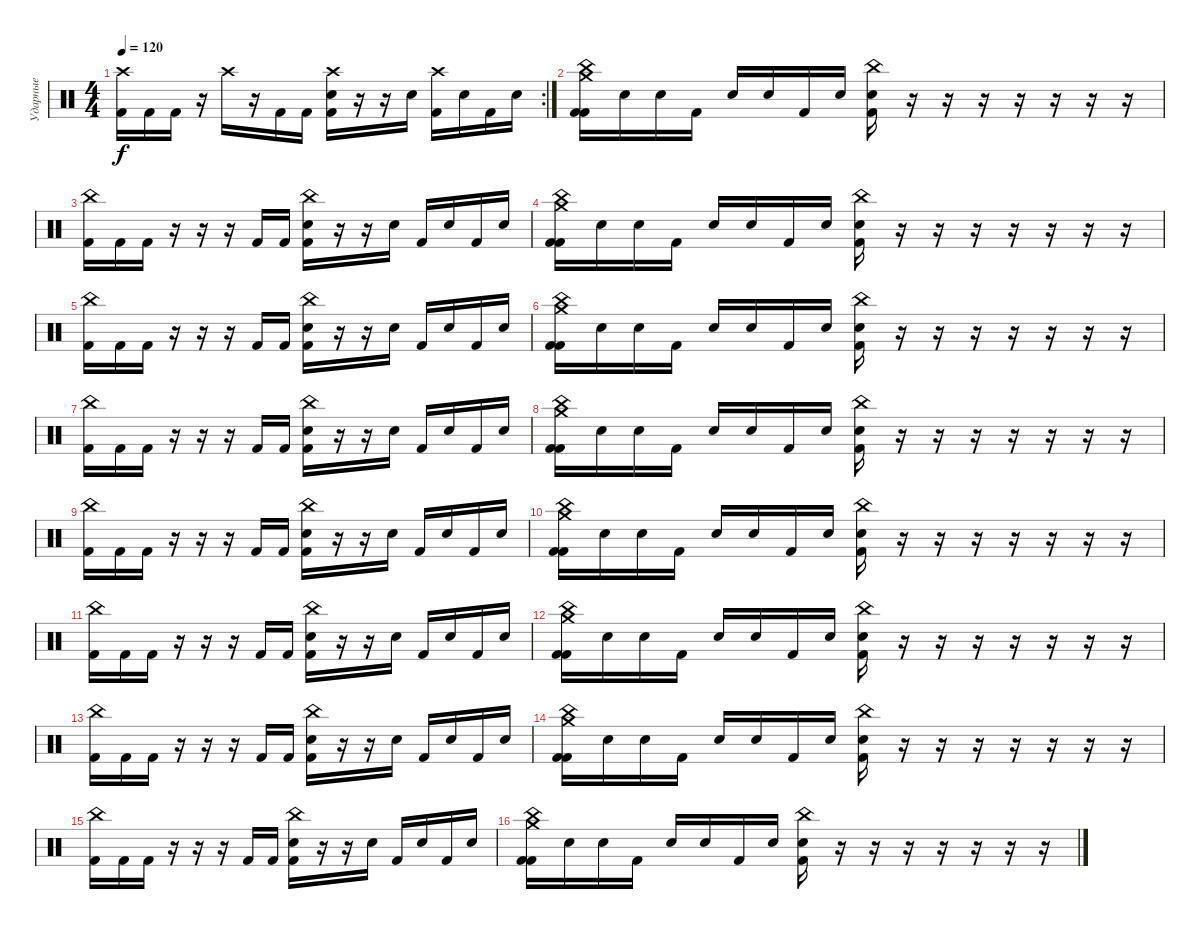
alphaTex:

\track ("Ударные" "Ударные") {instrument percussion}
\staff {score}
\articulation defaults
\rc 2
\ts (4 4)
\tempo 120
\clef neutral
\ks c
("Crash high (hit)" "Kick (hit) 2").16{dy f} "Kick (hit) 2".16 "Kick (hit) 2".16 r.16 "Crash high (hit)".16 r.16 "Kick (hit) 2".16 "Kick (hit) 2".16 ("Snare (hit) 2" "Crash high (hit)" "Kick (hit) 2").16 r.16 r.16 "Snare (hit)".16 ("Crash high (hit)" "Kick (hit) 2").16 "Snare (hit)".16 "Kick (hit) 2".16 "Snare (hit)".16 |
("Crash medium (hit)" "Kick (hit) 2" "China (hit)" "Kick (hit) 2").16 "Snare (hit)".16 "Snare (hit)".16 "Kick (hit) 2".16 "Snare (hit)".16 "Snare (hit)".16 "Kick (hit) 2".16 "Snare (hit)".16 ("China (hit)" "Snare (hit) 2" "Kick (hit) 2").16 r.16 r.16 r.16 r.16 r.16 r.16 r.16 |
("China (hit)" "Kick (hit) 2").16 "Kick (hit) 2".16 "Kick (hit) 2".16 r.16 r.16 r.16 "Kick (hit) 2".16 "Kick (hit) 2".16 ("Snare (hit) 2" "China (hit)" "Kick (hit) 2").16 r.16 r.16 "Snare (hit)".16 "Kick (hit) 2".16 "Snare (hit)".16 "Kick (hit) 2".16 "Snare (hit)".16 |
("Crash medium (hit)" "Kick (hit) 2" "China (hit)" "Kick (hit) 2").16 "Snare (hit)".16 "Snare (hit)".16 "Kick (hit) 2".16 "Snare (hit)".16 "Snare (hit)".16 "Kick (hit) 2".16 "Snare (hit)".16 ("China (hit)" "Snare (hit) 2" "Kick (hit) 2").16 r.16 r.16 r.16 r.16 r.16 r.16 r.16 |
("China (hit)" "Kick (hit) 2").16 "Kick (hit) 2".16 "Kick (hit) 2".16 r.16 r.16 r.16 "Kick (hit) 2".16 "Kick (hit) 2".16 ("Snare (hit) 2" "China (hit)" "Kick (hit) 2").16 r.16 r.16 "Snare (hit)".16 "Kick (hit) 2".16 "Snare (hit)".16 "Kick (hit) 2".16 "Snare (hit)".16 |
("Crash medium (hit)" "Kick (hit) 2" "China (hit)" "Kick (hit) 2").16 "Snare (hit)".16 "Snare (hit)".16 "Kick (hit) 2".16 "Snare (hit)".16 "Snare (hit)".16 "Kick (hit) 2".16 "Snare (hit)".16 ("China (hit)" "Snare (hit) 2" "Kick (hit) 2").16 r.16 r.16 r.16 r.16 r.16 r.16 r.16 |
("China (hit)" "Kick (hit) 2").16 "Kick (hit) 2".16 "Kick (hit) 2".16 r.16 r.16 r.16 "Kick (hit) 2".16 "Kick (hit) 2".16 ("Snare (hit) 2" "China (hit)" "Kick (hit) 2").16 r.16 r.16 "Snare (hit)".16 "Kick (hit) 2".16 "Snare (hit)".16 "Kick (hit) 2".16 "Snare (hit)".16 |
("Crash medium (hit)" "Kick (hit) 2" "China (hit)" "Kick (hit) 2").16 "Snare (hit)".16 "Snare (hit)".16 "Kick (hit) 2".16 "Snare (hit)".16 "Snare (hit)".16 "Kick (hit) 2".16 "Snare (hit)".16 ("China (hit)" "Snare (hit) 2" "Kick (hit) 2").16 r.16 r.16 r.16 r.16 r.16 r.16 r.16 |
("China (hit)" "Kick (hit) 2").16 "Kick (hit) 2".16 "Kick (hit) 2".16 r.16 r.16 r.16 "Kick (hit) 2".16 "Kick (hit) 2".16 ("Snare (hit) 2" "China (hit)" "Kick (hit) 2").16 r.16 r.16 "Snare (hit)".16 "Kick (hit) 2".16 "Snare (hit)".16 "Kick (hit) 2".16 "Snare (hit)".16 |
("Crash medium (hit)" "Kick (hit) 2" "China (hit)" "Kick (hit) 2").16 "Snare (hit)".16 "Snare (hit)".16 "Kick (hit) 2".16 "Snare (hit)".16 "Snare (hit)".16 "Kick (hit) 2".16 "Snare (hit)".16 ("China (hit)" "Snare (hit) 2" "Kick (hit) 2").16 r.16 r.16 r.16 r.16 r.16 r.16 r.16 |
("China (hit)" "Kick (hit) 2").16 "Kick (hit) 2".16 "Kick (hit) 2".16 r.16 r.16 r.16 "Kick (hit) 2".16 "Kick (hit) 2".16 ("Snare (hit) 2" "China (hit)" "Kick (hit) 2").16 r.16 r.16 "Snare (hit)".16 "Kick (hit) 2".16 "Snare (hit)".16 "Kick (hit) 2".16 "Snare (hit)".16 |
("Crash medium (hit)" "Kick (hit) 2" "China (hit)" "Kick (hit) 2").16 "Snare (hit)".16 "Snare (hit)".16 "Kick (hit) 2".16 "Snare (hit)".16 "Snare (hit)".16 "Kick (hit) 2".16 "Snare (hit)".16 ("China (hit)" "Snare (hit) 2" "Kick (hit) 2").16 r.16 r.16 r.16 r.16 r.16 r.16 r.16 |
("China (hit)" "Kick (hit) 2").16 "Kick (hit) 2".16 "Kick (hit) 2".16 r.16 r.16 r.16 "Kick (hit) 2".16 "Kick (hit) 2".16 ("Snare (hit) 2" "China (hit)" "Kick (hit) 2").16 r.16 r.16 "Snare (hit)".16 "Kick (hit) 2".16 "Snare (hit)".16 "Kick (hit) 2".16 "Snare (hit)".16 |
("Crash medium (hit)" "Kick (hit) 2" "China (hit)" "Kick (hit) 2").16 "Snare (hit)".16 "Snare (hit)".16 "Kick (hit) 2".16 "Snare (hit)".16 "Snare (hit)".16 "Kick (hit) 2".16 "Snare (hit)".16 ("China (hit)" "Snare (hit) 2" "Kick (hit) 2").16 r.16 r.16 r.16 r.16 r.16 r.16 r.16 |
("China (hit)" "Kick (hit) 2").16 "Kick (hit) 2".16 "Kick (hit) 2".16 r.16 r.16 r.16 "Kick (hit) 2".16 "Kick (hit) 2".16 ("Snare (hit) 2" "China (hit)" "Kick (hit) 2").16 r.16 r.16 "Snare (hit)".16 "Kick (hit) 2".16 "Snare (hit)".16 "Kick (hit) 2".16 "Snare (hit)".16 |
("Crash medium (hit)" "Kick (hit) 2" "China (hit)" "Kick (hit) 2").16 "Snare (hit)".16 "Snare (hit)".16 "Kick (hit) 2".16 "Snare (hit)".16 "Snare (hit)".16 "Kick (hit) 2".16 "Snare (hit)".16 ("China (hit)" "Snare (hit) 2" "Kick (hit) 2").16 r.16 r.16 r.16 r.16 r.16 r.16 r.16
